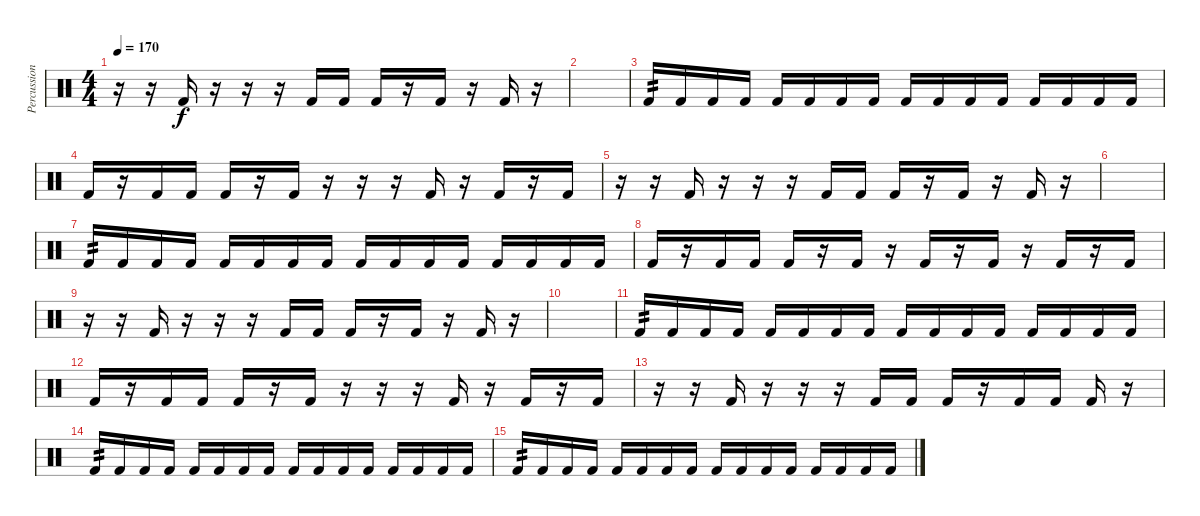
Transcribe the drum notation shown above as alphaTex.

\track ("Percussion" "Percussion") {solo instrument percussion}
\staff {score}
\articulation defaults
\ts (4 4)
\tempo 170
\clef neutral
\ks c
r.16{dy f} r.16 "Kick (hit) 2".16 r.16 r.16 r.16 "Kick (hit) 2".16 "Kick (hit) 2".16 "Kick (hit) 2".16 r.16 "Kick (hit) 2".16 r.16 "Kick (hit) 2".16 r.16 |
|
"Kick (hit) 2".16{tp 2} "Kick (hit) 2".16 "Kick (hit) 2".16 "Kick (hit) 2".16 "Kick (hit) 2".16 "Kick (hit) 2".16 "Kick (hit) 2".16 "Kick (hit) 2".16 "Kick (hit) 2".16 "Kick (hit) 2".16 "Kick (hit) 2".16 "Kick (hit) 2".16 "Kick (hit) 2".16 "Kick (hit) 2".16 "Kick (hit) 2".16 "Kick (hit) 2".16 |
"Kick (hit) 2".16 r.16 "Kick (hit) 2".16 "Kick (hit) 2".16 "Kick (hit) 2".16 r.16 "Kick (hit) 2".16 r.16 r.16 r.16 "Kick (hit) 2".16 r.16 "Kick (hit) 2".16 r.16 "Kick (hit) 2".16 |
r.16 r.16 "Kick (hit) 2".16 r.16 r.16 r.16 "Kick (hit) 2".16 "Kick (hit) 2".16 "Kick (hit) 2".16 r.16 "Kick (hit) 2".16 r.16 "Kick (hit) 2".16 r.16 |
|
"Kick (hit) 2".16{tp 2} "Kick (hit) 2".16 "Kick (hit) 2".16 "Kick (hit) 2".16 "Kick (hit) 2".16 "Kick (hit) 2".16 "Kick (hit) 2".16 "Kick (hit) 2".16 "Kick (hit) 2".16 "Kick (hit) 2".16 "Kick (hit) 2".16 "Kick (hit) 2".16 "Kick (hit) 2".16 "Kick (hit) 2".16 "Kick (hit) 2".16 "Kick (hit) 2".16 |
"Kick (hit) 2".16 r.16 "Kick (hit) 2".16 "Kick (hit) 2".16 "Kick (hit) 2".16 r.16 "Kick (hit) 2".16 r.16 "Kick (hit) 2".16 r.16 "Kick (hit) 2".16 r.16 "Kick (hit) 2".16 r.16 "Kick (hit) 2".16 |
r.16 r.16 "Kick (hit) 2".16 r.16 r.16 r.16 "Kick (hit) 2".16 "Kick (hit) 2".16 "Kick (hit) 2".16 r.16 "Kick (hit) 2".16 r.16 "Kick (hit) 2".16 r.16 |
|
"Kick (hit) 2".16{tp 2} "Kick (hit) 2".16 "Kick (hit) 2".16 "Kick (hit) 2".16 "Kick (hit) 2".16 "Kick (hit) 2".16 "Kick (hit) 2".16 "Kick (hit) 2".16 "Kick (hit) 2".16 "Kick (hit) 2".16 "Kick (hit) 2".16 "Kick (hit) 2".16 "Kick (hit) 2".16 "Kick (hit) 2".16 "Kick (hit) 2".16 "Kick (hit) 2".16 |
"Kick (hit) 2".16 r.16 "Kick (hit) 2".16 "Kick (hit) 2".16 "Kick (hit) 2".16 r.16 "Kick (hit) 2".16 r.16 r.16 r.16 "Kick (hit) 2".16 r.16 "Kick (hit) 2".16 r.16 "Kick (hit) 2".16 |
r.16 r.16 "Kick (hit) 2".16 r.16 r.16 r.16 "Kick (hit) 2".16 "Kick (hit) 2".16 "Kick (hit) 2".16 r.16 "Kick (hit) 2".16 "Kick (hit) 2".16 "Kick (hit) 2".16 r.16 |
"Kick (hit) 2".16{tp 2} "Kick (hit) 2".16 "Kick (hit) 2".16 "Kick (hit) 2".16 "Kick (hit) 2".16 "Kick (hit) 2".16 "Kick (hit) 2".16 "Kick (hit) 2".16 "Kick (hit) 2".16 "Kick (hit) 2".16 "Kick (hit) 2".16 "Kick (hit) 2".16 "Kick (hit) 2".16 "Kick (hit) 2".16 "Kick (hit) 2".16 "Kick (hit) 2".16 |
"Kick (hit) 2".16{tp 2} "Kick (hit) 2".16 "Kick (hit) 2".16 "Kick (hit) 2".16 "Kick (hit) 2".16 "Kick (hit) 2".16 "Kick (hit) 2".16 "Kick (hit) 2".16 "Kick (hit) 2".16 "Kick (hit) 2".16 "Kick (hit) 2".16 "Kick (hit) 2".16 "Kick (hit) 2".16 "Kick (hit) 2".16 "Kick (hit) 2".16 "Kick (hit) 2".16
